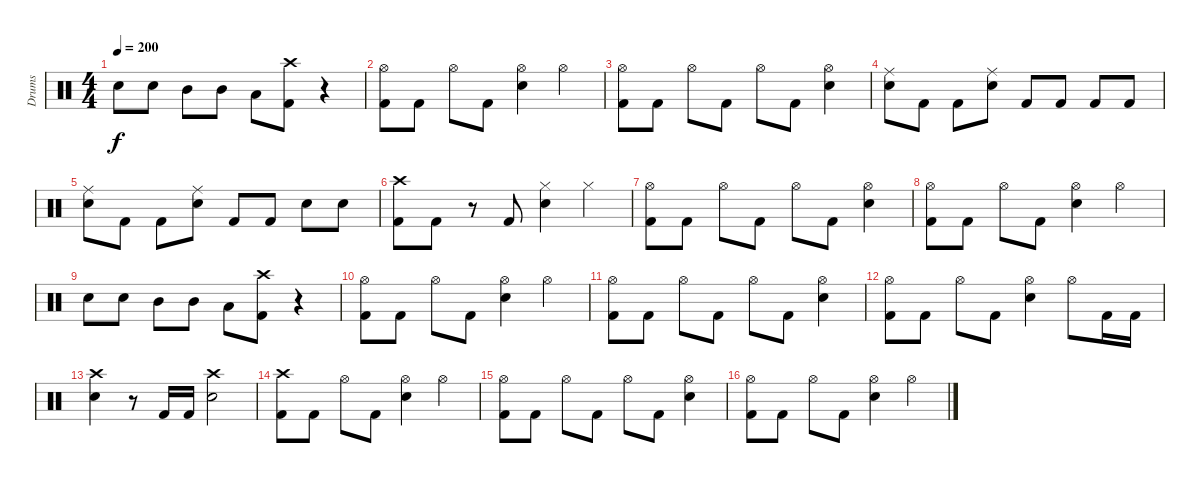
\track ("Drums" "Drums") {instrument percussion}
\staff {score}
\articulation defaults
\ts (4 4)
\tempo 200
\clef neutral
\ks c "Electric Snare (hit)".8{dy f} "Electric Snare (hit)".8 "Mid Tom (hit)".8 "Mid Tom (hit)".8 "Low Tom (hit)".8
("Crash high (hit)" "Kick (hit) 2").8 r.4 |
("Hi-Hat (open)" "Kick (hit) 2").8 "Kick (hit) 2".8 "Hi-Hat (open)".8 "Kick (hit) 2".8 ("Hi-Hat (open)" "Electric Snare (hit)").4 "Hi-Hat (open)".4 |
("Hi-Hat (open)" "Kick (hit) 2").8 "Kick (hit) 2".8 "Hi-Hat (open)".8 "Kick (hit) 2".8 "Hi-Hat (open)".8 "Kick (hit) 2".8 ("Hi-Hat (open)" "Electric Snare (hit)").4 |
("Ride (middle)" "Electric Snare (hit)").8 "Kick (hit) 2".8 "Kick (hit) 2".8 ("Ride (middle)" "Electric Snare (hit)").8 "Kick (hit) 2".8 "Kick (hit) 2".8 "Kick (hit) 2".8 "Kick (hit) 2".8 |
("Ride (middle)" "Electric Snare (hit)").8 "Kick (hit) 2".8 "Kick (hit) 2".8 ("Ride (middle)" "Electric Snare (hit)").8 "Kick (hit) 2".8 "Kick (hit) 2".8 "Electric Snare (hit)".8 "Electric Snare (hit)".8 |
("Crash high (hit)" "Kick (hit) 2").8 "Kick (hit) 2".8 r.8 "Kick (hit) 2".8 ("Hi-Hat (closed)" "Electric Snare (hit)").4 "Hi-Hat (closed)".4 |
("Hi-Hat (open)" "Kick (hit) 2").8 "Kick (hit) 2".8 "Hi-Hat (open)".8 "Kick (hit) 2".8 "Hi-Hat (open)".8 "Kick (hit) 2".8 ("Hi-Hat (open)" "Electric Snare (hit)").4 |
("Hi-Hat (open)" "Kick (hit) 2").8 "Kick (hit) 2".8 "Hi-Hat (open)".8 "Kick (hit) 2".8 ("Hi-Hat (open)" "Electric Snare (hit)").4 "Hi-Hat (open)".4 |
"Electric Snare (hit)".8 "Electric Snare (hit)".8 "Mid Tom (hit)".8 "Mid Tom (hit)".8 "Low Tom (hit)".8 ("Crash high (hit)" "Kick (hit) 2").8 r.4 |
("Hi-Hat (open)" "Kick (hit) 2").8 "Kick (hit) 2".8 "Hi-Hat (open)".8 "Kick (hit) 2".8 ("Hi-Hat (open)" "Electric Snare (hit)").4 "Hi-Hat (open)".4 |
("Hi-Hat (open)" "Kick (hit) 2").8 "Kick (hit) 2".8 "Hi-Hat (open)".8 "Kick (hit) 2".8 "Hi-Hat (open)".8 "Kick (hit) 2".8 ("Hi-Hat (open)" "Electric Snare (hit)").4 |
("Hi-Hat (open)" "Kick (hit) 2").8 "Kick (hit) 2".8 "Hi-Hat (open)".8 "Kick (hit) 2".8 ("Hi-Hat (open)" "Electric Snare (hit)").4 "Hi-Hat (open)".8 "Kick (hit) 2".16 "Kick (hit) 2".16 |
("Crash high (hit)" "Electric Snare (hit)").4 r.8 "Kick (hit) 2".16 "Kick (hit) 2".16 ("Crash high (hit)" "Electric Snare (hit)").2 |
("Crash high (hit)" "Kick (hit) 2").8 "Kick (hit) 2".8 "Hi-Hat (open)".8 "Kick (hit) 2".8 ("Hi-Hat (open)" "Electric Snare (hit)").4 "Hi-Hat (open)".4 |
("Hi-Hat (open)" "Kick (hit) 2").8 "Kick (hit) 2".8 "Hi-Hat (open)".8 "Kick (hit) 2".8 "Hi-Hat (open)".8 "Kick (hit) 2".8 ("Hi-Hat (open)" "Electric Snare (hit)").4 |
("Hi-Hat (open)" "Kick (hit) 2").8 "Kick (hit) 2".8 "Hi-Hat (open)".8 "Kick (hit) 2".8 ("Hi-Hat (open)" "Electric Snare (hit)").4 "Hi-Hat (open)".4
